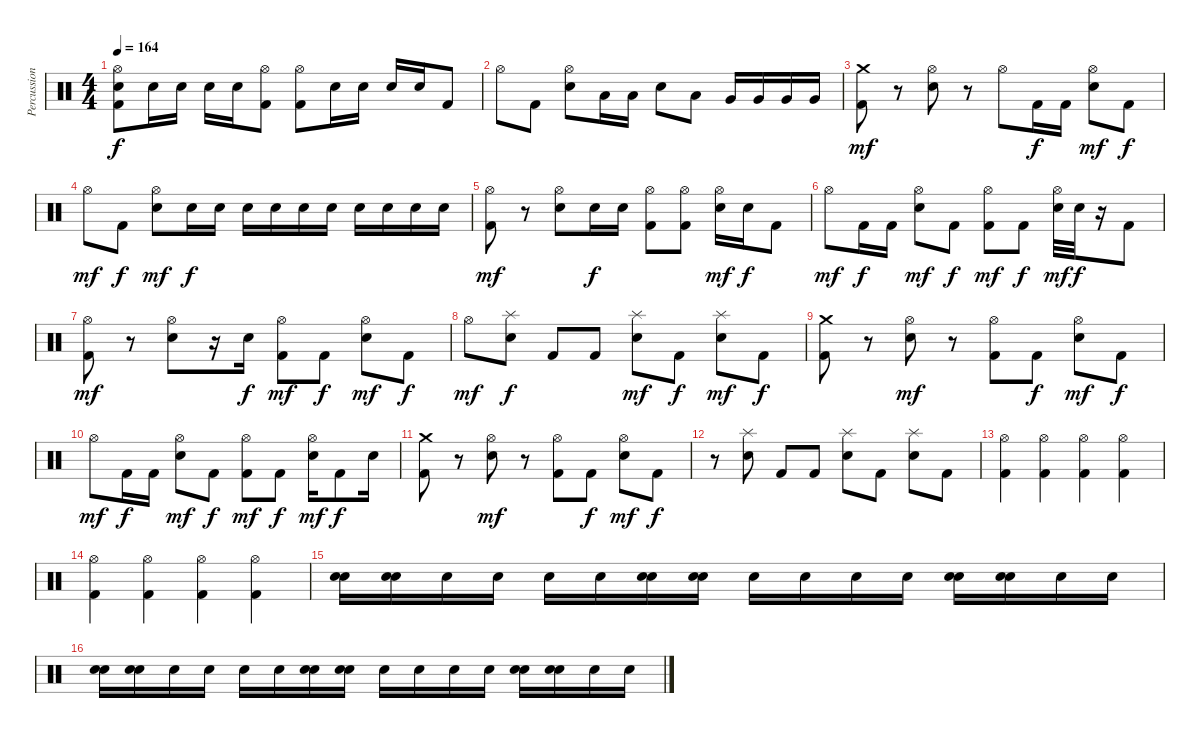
\track ("Percussion" "Percussion") {instrument percussion}
\staff {score}
\articulation defaults
\ts (4 4)
\tempo 164
\clef neutral
\ks c
("Hi-Hat (open)" "Electric Snare (hit)" "Kick (hit) 2").8{dy f} "Electric Snare (hit)".16 "Electric Snare (hit)".16 "Electric Snare (hit)".16 "Electric Snare (hit)".16 ("Hi-Hat (open)" "Kick (hit) 2").8 ("Hi-Hat (open)" "Kick (hit) 2").8 "Electric Snare (hit)".16 "Electric Snare (hit)".16 "Electric Snare (hit)".16 "Electric Snare (hit)".16 "Kick (hit) 2".8 |
"Hi-Hat (open)".8 "Kick (hit) 2".8 ("Hi-Hat (open)" "Electric Snare (hit)").8 "Low Tom (hit)".16 "Low Tom (hit)".16 "Electric Snare (hit)".8 "Low Tom (hit)".8 "Very Low Tom (hit)".16 "Very Low Tom (hit)".16 "Very Low Tom (hit)".16 "Very Low Tom (hit)".16 |
("Crash medium (hit)" "Kick (hit) 2").8{dy mf} r.8 ("Hi-Hat (open)" "Electric Snare (hit)").8 r.8 "Hi-Hat (open)".8 "Kick (hit) 2".16{dy f} "Kick (hit) 2".16 ("Hi-Hat (open)" "Electric Snare (hit)").8{dy mf} "Kick (hit) 2".8{dy f} |
"Hi-Hat (open)".8{dy mf} "Kick (hit) 2".8{dy f} ("Hi-Hat (open)" "Electric Snare (hit)").8{dy mf} "Electric Snare (hit)".16{dy f} "Electric Snare (hit)".16 "Electric Snare (hit)".16 "Electric Snare (hit)".16 "Electric Snare (hit)".16 "Electric Snare (hit)".16 "Electric Snare (hit)".16 "Electric Snare (hit)".16 "Electric Snare (hit)".16 "Electric Snare (hit)".16 |
("Hi-Hat (open)" "Kick (hit) 2").8{dy mf} r.8 ("Hi-Hat (open)" "Electric Snare (hit)").8 "Electric Snare (hit)".16{dy f} "Electric Snare (hit)".16 ("Hi-Hat (open)" "Kick (hit) 2").8 ("Hi-Hat (open)" "Kick (hit) 2").8 ("Hi-Hat (open)" "Electric Snare (hit)").16{dy mf} "Electric Snare (hit)".16{dy f} "Kick (hit) 2".8 |
"Hi-Hat (open)".8{dy mf} "Kick (hit) 2".16{dy f} "Kick (hit) 2".16 ("Hi-Hat (open)" "Electric Snare (hit)").8{dy mf} "Kick (hit) 2".8{dy f} ("Hi-Hat (open)" "Kick (hit) 2").8{dy mf} "Kick (hit) 2".8{dy f} ("Hi-Hat (open)" "Electric Snare (hit)").32{dy mf} "Electric Snare (hit)".32{dy f} r.16 "Kick (hit) 2".8 |
("Hi-Hat (open)" "Kick (hit) 2").8{dy mf} r.8 ("Hi-Hat (open)" "Electric Snare (hit)").8 r.16 "Electric Snare (hit)".16{dy f} ("Hi-Hat (open)" "Kick (hit) 2").8{dy mf} "Kick (hit) 2".8{dy f} ("Hi-Hat (open)" "Electric Snare (hit)").8{dy mf} "Kick (hit) 2".8{dy f} |
"Hi-Hat (open)".8{dy mf} ("Splash (hit)" "Electric Snare (hit)").8{dy f} "Kick (hit) 2".8 "Kick (hit) 2".8 ("Splash (hit)" "Electric Snare (hit)").8{dy mf} "Kick (hit) 2".8{dy f} ("Splash (hit)" "Electric Snare (hit)").8{dy mf} "Kick (hit) 2".8{dy f} |
("Crash medium (hit)" "Kick (hit) 2").8 r.8 ("Hi-Hat (open)" "Electric Snare (hit)").8{dy mf} r.8 ("Hi-Hat (open)" "Kick (hit) 2").8 "Kick (hit) 2".8{dy f} ("Hi-Hat (open)" "Electric Snare (hit)").8{dy mf} "Kick (hit) 2".8{dy f} |
"Hi-Hat (open)".8{dy mf} "Kick (hit) 2".16{dy f} "Kick (hit) 2".16 ("Hi-Hat (open)" "Electric Snare (hit)").8{dy mf} "Kick (hit) 2".8{dy f} ("Hi-Hat (open)" "Kick (hit) 2").8{dy mf} "Kick (hit) 2".8{dy f} ("Hi-Hat (open)" "Electric Snare (hit)").16{dy mf} "Kick (hit) 2".8{dy f} "Electric Snare (hit)".16 |
("Crash medium (hit)" "Kick (hit) 2").8 r.8 ("Hi-Hat (open)" "Electric Snare (hit)").8{dy mf} r.8 ("Hi-Hat (open)" "Kick (hit) 2").8 "Kick (hit) 2".8{dy f} ("Hi-Hat (open)" "Electric Snare (hit)").8{dy mf} "Kick (hit) 2".8{dy f} |
r.8 ("Splash (hit)" "Electric Snare (hit)").8 "Kick (hit) 2".8 "Kick (hit) 2".8 ("Splash (hit)" "Electric Snare (hit)").8 "Kick (hit) 2".8 ("Splash (hit)" "Electric Snare (hit)").8 "Kick (hit) 2".8 |
("Hi-Hat (open)" "Kick (hit) 2").4 ("Hi-Hat (open)" "Kick (hit) 2").4 ("Hi-Hat (open)" "Kick (hit) 2").4 ("Hi-Hat (open)" "Kick (hit) 2").4 |
("Hi-Hat (open)" "Kick (hit) 2").4 ("Hi-Hat (open)" "Kick (hit) 2").4 ("Hi-Hat (open)" "Kick (hit) 2").4 ("Hi-Hat (open)" "Kick (hit) 2").4 |
("Electric Snare (hit)" "Electric Snare (hit)").16 ("Electric Snare (hit)" "Electric Snare (hit)").16 "Electric Snare (hit)".16 "Electric Snare (hit)".16 "Electric Snare (hit)".16 "Electric Snare (hit)".16 ("Electric Snare (hit)" "Electric Snare (hit)").16 ("Electric Snare (hit)" "Electric Snare (hit)").16 "Electric Snare (hit)".16 "Electric Snare (hit)".16 "Electric Snare (hit)".16 "Electric Snare (hit)".16 ("Electric Snare (hit)" "Electric Snare (hit)").16 ("Electric Snare (hit)" "Electric Snare (hit)").16 "Electric Snare (hit)".16 "Electric Snare (hit)".16 |
("Electric Snare (hit)" "Electric Snare (hit)").16 ("Electric Snare (hit)" "Electric Snare (hit)").16 "Electric Snare (hit)".16 "Electric Snare (hit)".16 "Electric Snare (hit)".16 "Electric Snare (hit)".16 ("Electric Snare (hit)" "Electric Snare (hit)").16 ("Electric Snare (hit)" "Electric Snare (hit)").16 "Electric Snare (hit)".16 "Electric Snare (hit)".16 "Electric Snare (hit)".16 "Electric Snare (hit)".16 ("Electric Snare (hit)" "Electric Snare (hit)").16 ("Electric Snare (hit)" "Electric Snare (hit)").16 "Electric Snare (hit)".16 "Electric Snare (hit)".16
